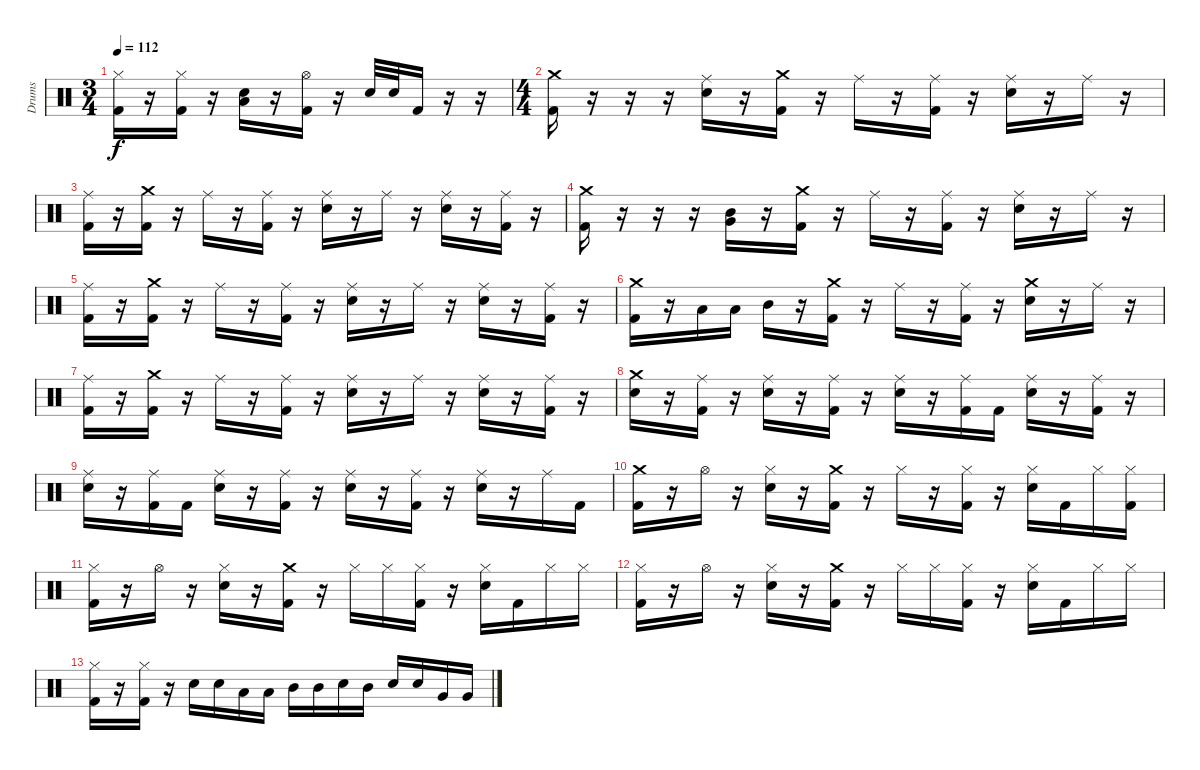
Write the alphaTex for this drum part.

\track ("Drums" "Drums") {instrument percussion}
\staff {score}
\articulation defaults
\ts (3 4)
\tempo 112
\clef neutral
\ks c
("Hi-Hat (closed)" "Kick (hit) 2").16{dy f} r.16 ("Hi-Hat (closed)" "Kick (hit) 2").16 r.16 ("Snare (hit) 2" "Low Floor Tom (hit)").16 r.16 ("Hi-Hat (open)" "Kick (hit) 2").16 r.16 "Snare (hit) 2".32 "Snare (hit) 2".32 "Kick (hit) 2".16 r.16 r.16 |
\ts (4 4)
("Crash medium (hit)" "Kick (hit) 2").16 r.16 r.16 r.16 ("Ride (middle)" "Snare (hit) 2").16 r.16 ("Crash medium (hit)" "Kick (hit) 2").16 r.16 "Ride (middle)".16 r.16 ("Ride (middle)" "Kick (hit) 2").16 r.16 ("Ride (middle)" "Snare (hit) 2").16 r.16 "Ride (middle)".16 r.16 |
("Ride (middle)" "Kick (hit) 2").16 r.16 ("Crash medium (hit)" "Kick (hit) 2").16 r.16 "Ride (middle)".16 r.16 ("Ride (middle)" "Kick (hit) 2").16 r.16 ("Ride (middle)" "Snare (hit) 2").16 r.16 "Ride (middle)".16 r.16 ("Ride (middle)" "Snare (hit) 2").16 r.16 ("Ride (middle)" "Kick (hit) 2").16 r.16 |
("Crash medium (hit)" "Kick (hit) 2").16 r.16 r.16 r.16 ("Mid Tom (hit)" "Very Low Tom (hit)").16 r.16 ("Crash medium (hit)" "Kick (hit) 2").16 r.16 "Ride (middle)".16 r.16 ("Ride (middle)" "Kick (hit) 2").16 r.16 ("Ride (middle)" "Snare (hit) 2").16 r.16 "Ride (middle)".16 r.16 |
("Ride (middle)" "Kick (hit) 2").16 r.16 ("Crash medium (hit)" "Kick (hit) 2").16 r.16 "Ride (middle)".16 r.16 ("Ride (middle)" "Kick (hit) 2").16 r.16 ("Ride (middle)" "Snare (hit) 2").16 r.16 "Ride (middle)".16 r.16 ("Ride (middle)" "Snare (hit) 2").16 r.16 ("Ride (middle)" "Kick (hit) 2").16 r.16 |
("Crash medium (hit)" "Kick (hit) 2").16 r.16 "Low Tom (hit)".16 "Low Tom (hit)".16 "Mid Tom (hit)".16 r.16 ("Crash medium (hit)" "Kick (hit) 2").16 r.16 "Ride (middle)".16 r.16 ("Ride (middle)" "Kick (hit) 2").16 r.16 ("Crash medium (hit)" "Snare (hit) 2").16 r.16 "Ride (middle)".16 r.16 |
("Ride (middle)" "Kick (hit) 2").16 r.16 ("Crash medium (hit)" "Kick (hit) 2").16 r.16 "Ride (middle)".16 r.16 ("Ride (middle)" "Kick (hit) 2").16 r.16 ("Ride (middle)" "Snare (hit) 2").16 r.16 "Ride (middle)".16 r.16 ("Ride (middle)" "Snare (hit) 2").16 r.16 ("Ride (middle)" "Kick (hit) 2").16 r.16 |
("Crash medium (hit)" "Snare (hit) 2").16 r.16 ("Ride (middle)" "Kick (hit) 2").16 r.16 ("Ride (middle)" "Snare (hit) 2").16 r.16 ("Ride (middle)" "Kick (hit) 2").16 r.16 ("Ride (middle)" "Snare (hit) 2").16 r.16 ("Ride (middle)" "Kick (hit) 2").16 "Kick (hit) 2".16 ("Ride (middle)" "Snare (hit) 2").16 r.16 ("Ride (middle)" "Kick (hit) 2").16 r.16 |
("Ride (middle)" "Snare (hit) 2").16 r.16 ("Ride (middle)" "Kick (hit) 2").16 "Kick (hit) 2".16 ("Ride (middle)" "Snare (hit) 2").16 r.16 ("Ride (middle)" "Kick (hit) 2").16 r.16 ("Ride (middle)" "Snare (hit) 2").16 r.16 ("Ride (middle)" "Kick (hit) 2").16 r.16 ("Ride (middle)" "Snare (hit) 2").16 r.16 "Ride (middle)".16 "Kick (hit) 2".16 |
("Crash medium (hit)" "Kick (hit) 2").16 r.16 "Hi-Hat (open)".16 r.16 ("Hi-Hat (closed)" "Snare (hit) 2").16 r.16 ("Crash medium (hit)" "Kick (hit) 2").16 r.16 "Hi-Hat (closed)".16 r.16 ("Hi-Hat (closed)" "Kick (hit) 2").16 r.16 ("Hi-Hat (closed)" "Snare (hit) 2").16 "Kick (hit) 2".16 "Hi-Hat (closed)".16 ("Hi-Hat (closed)" "Kick (hit) 2").16 |
("Hi-Hat (closed)" "Kick (hit) 2").16{volume 0} r.16 "Hi-Hat (open)".16 r.16 ("Hi-Hat (closed)" "Snare (hit) 2").16 r.16 ("Crash medium (hit)" "Kick (hit) 2").16 r.16 "Hi-Hat (closed)".16 "Hi-Hat (closed)".16 ("Hi-Hat (closed)" "Kick (hit) 2").16 r.16 ("Hi-Hat (closed)" "Snare (hit) 2").16 "Kick (hit) 2".16 "Hi-Hat (closed)".16 "Hi-Hat (closed)".16 |
("Hi-Hat (closed)" "Kick (hit) 2").16 r.16 "Hi-Hat (open)".16 r.16 ("Hi-Hat (closed)" "Snare (hit) 2").16 r.16 ("Crash medium (hit)" "Kick (hit) 2").16 r.16 "Hi-Hat (closed)".16 "Hi-Hat (closed)".16 ("Hi-Hat (closed)" "Kick (hit) 2").16 r.16 ("Hi-Hat (closed)" "Snare (hit) 2").16 "Kick (hit) 2".16 "Hi-Hat (closed)".16 "Hi-Hat (closed)".16 |
("Hi-Hat (closed)" "Kick (hit) 2").16 r.16 ("Hi-Hat (closed)" "Kick (hit) 2").16 r.16 "Snare (hit) 2".16 "Snare (hit) 2".16 "Low Tom (hit)".16 "Low Tom (hit)".16 "Mid Tom (hit)".16 "Mid Tom (hit)".16 "Snare (hit) 2".16 "Mid Tom (hit)".16 "Snare (hit) 2".16 "Snare (hit) 2".16 "Very Low Tom (hit)".16 "Very Low Tom (hit)".16
